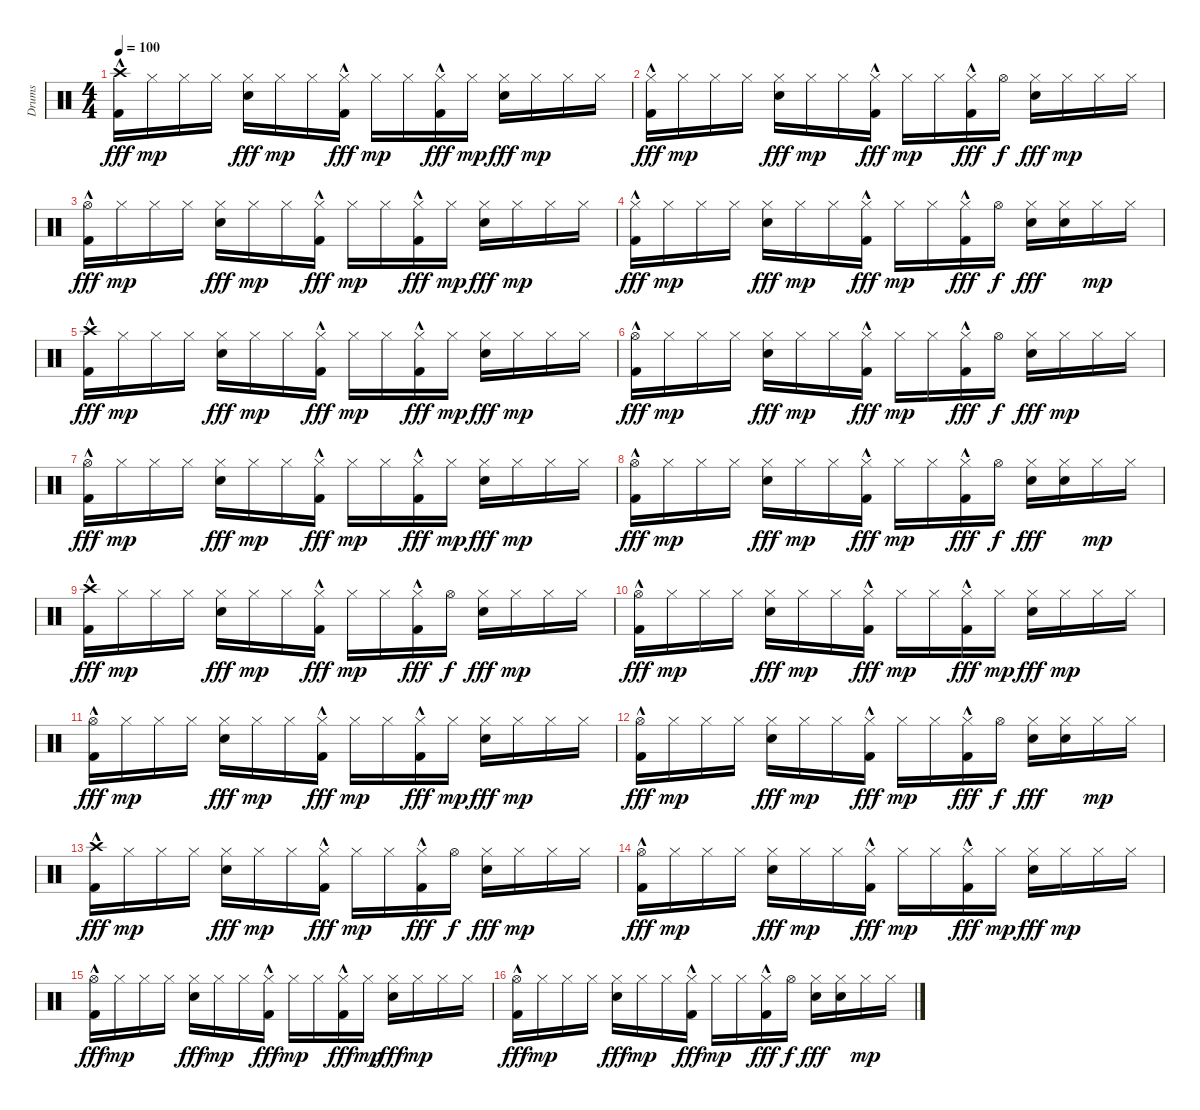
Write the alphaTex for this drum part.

\track ("Drums" "Drums") {instrument percussion}
\staff {score}
\articulation defaults
\ts (4 4)
\tempo 100
\clef neutral
\ks c
("Crash high (hit)" "Kick (hit) 2"{hac}).16{dy fff} "Hi-Hat (closed)".16{dy mp} "Hi-Hat (closed)".16 "Hi-Hat (closed)".16 ("Hi-Hat (closed)" "Snare (hit) 2").16{dy fff} "Hi-Hat (closed)".16{dy mp} "Hi-Hat (closed)".16 ("Hi-Hat (closed)" "Kick (hit) 2"{hac}).16{dy fff} "Hi-Hat (closed)".16{dy mp} "Hi-Hat (closed)".16 ("Hi-Hat (closed)" "Kick (hit) 2"{hac}).16{dy fff} "Hi-Hat (closed)".16{dy mp} ("Hi-Hat (closed)" "Snare (hit) 2").16{dy fff} "Hi-Hat (closed)".16{dy mp} "Hi-Hat (closed)".16 "Hi-Hat (closed)".16 |
("Hi-Hat (closed)" "Kick (hit) 2"{hac}).16{dy fff} "Hi-Hat (closed)".16{dy mp} "Hi-Hat (closed)".16 "Hi-Hat (closed)".16 ("Hi-Hat (closed)" "Snare (hit) 2").16{dy fff} "Hi-Hat (closed)".16{dy mp} "Hi-Hat (closed)".16 ("Hi-Hat (closed)" "Kick (hit) 2"{hac}).16{dy fff} "Hi-Hat (closed)".16{dy mp} "Hi-Hat (closed)".16 ("Hi-Hat (closed)" "Kick (hit) 2"{hac}).16{dy fff} "Hi-Hat (open)".16{dy f} ("Hi-Hat (closed)" "Snare (hit) 2").16{dy fff} "Hi-Hat (closed)".16{dy mp} "Hi-Hat (closed)".16 "Hi-Hat (closed)".16 |
("Hi-Hat (open)" "Kick (hit) 2"{hac}).16{dy fff} "Hi-Hat (closed)".16{dy mp} "Hi-Hat (closed)".16 "Hi-Hat (closed)".16 ("Hi-Hat (closed)" "Snare (hit) 2").16{dy fff} "Hi-Hat (closed)".16{dy mp} "Hi-Hat (closed)".16 ("Hi-Hat (closed)" "Kick (hit) 2"{hac}).16{dy fff} "Hi-Hat (closed)".16{dy mp} "Hi-Hat (closed)".16 ("Hi-Hat (closed)" "Kick (hit) 2"{hac}).16{dy fff} "Hi-Hat (closed)".16{dy mp} ("Hi-Hat (closed)" "Snare (hit) 2").16{dy fff} "Hi-Hat (closed)".16{dy mp} "Hi-Hat (closed)".16 "Hi-Hat (closed)".16 |
("Hi-Hat (closed)" "Kick (hit) 2"{hac}).16{dy fff} "Hi-Hat (closed)".16{dy mp} "Hi-Hat (closed)".16 "Hi-Hat (closed)".16 ("Hi-Hat (closed)" "Snare (hit) 2").16{dy fff} "Hi-Hat (closed)".16{dy mp} "Hi-Hat (closed)".16 ("Hi-Hat (closed)" "Kick (hit) 2"{hac}).16{dy fff} "Hi-Hat (closed)".16{dy mp} "Hi-Hat (closed)".16 ("Hi-Hat (closed)" "Kick (hit) 2"{hac}).16{dy fff} "Hi-Hat (open)".16{dy f} ("Hi-Hat (closed)" "Snare (hit) 2").16{dy fff} ("Hi-Hat (closed)" "Snare (hit) 2").16 "Hi-Hat (closed)".16{dy mp} "Hi-Hat (closed)".16 |
("Crash high (hit)" "Kick (hit) 2"{hac}).16{dy fff} "Hi-Hat (closed)".16{dy mp} "Hi-Hat (closed)".16 "Hi-Hat (closed)".16 ("Hi-Hat (closed)" "Snare (hit) 2").16{dy fff} "Hi-Hat (closed)".16{dy mp} "Hi-Hat (closed)".16 ("Hi-Hat (closed)" "Kick (hit) 2"{hac}).16{dy fff} "Hi-Hat (closed)".16{dy mp} "Hi-Hat (closed)".16 ("Hi-Hat (closed)" "Kick (hit) 2"{hac}).16{dy fff} "Hi-Hat (closed)".16{dy mp} ("Hi-Hat (closed)" "Snare (hit) 2").16{dy fff} "Hi-Hat (closed)".16{dy mp} "Hi-Hat (closed)".16 "Hi-Hat (closed)".16 |
("Hi-Hat (open)" "Kick (hit) 2"{hac}).16{dy fff} "Hi-Hat (closed)".16{dy mp} "Hi-Hat (closed)".16 "Hi-Hat (closed)".16 ("Hi-Hat (closed)" "Snare (hit) 2").16{dy fff} "Hi-Hat (closed)".16{dy mp} "Hi-Hat (closed)".16 ("Hi-Hat (closed)" "Kick (hit) 2"{hac}).16{dy fff} "Hi-Hat (closed)".16{dy mp} "Hi-Hat (closed)".16 ("Hi-Hat (closed)" "Kick (hit) 2"{hac}).16{dy fff} "Hi-Hat (open)".16{dy f} ("Hi-Hat (closed)" "Snare (hit) 2").16{dy fff} "Hi-Hat (closed)".16{dy mp} "Hi-Hat (closed)".16 "Hi-Hat (closed)".16 |
("Hi-Hat (open)" "Kick (hit) 2"{hac}).16{dy fff} "Hi-Hat (closed)".16{dy mp} "Hi-Hat (closed)".16 "Hi-Hat (closed)".16 ("Hi-Hat (closed)" "Snare (hit) 2").16{dy fff} "Hi-Hat (closed)".16{dy mp} "Hi-Hat (closed)".16 ("Hi-Hat (closed)" "Kick (hit) 2"{hac}).16{dy fff} "Hi-Hat (closed)".16{dy mp} "Hi-Hat (closed)".16 ("Hi-Hat (closed)" "Kick (hit) 2"{hac}).16{dy fff} "Hi-Hat (closed)".16{dy mp} ("Hi-Hat (closed)" "Snare (hit) 2").16{dy fff} "Hi-Hat (closed)".16{dy mp} "Hi-Hat (closed)".16 "Hi-Hat (closed)".16 |
("Hi-Hat (open)" "Kick (hit) 2"{hac}).16{dy fff} "Hi-Hat (closed)".16{dy mp} "Hi-Hat (closed)".16 "Hi-Hat (closed)".16 ("Hi-Hat (closed)" "Snare (hit) 2").16{dy fff} "Hi-Hat (closed)".16{dy mp} "Hi-Hat (closed)".16 ("Hi-Hat (closed)" "Kick (hit) 2"{hac}).16{dy fff} "Hi-Hat (closed)".16{dy mp} "Hi-Hat (closed)".16 ("Hi-Hat (closed)" "Kick (hit) 2"{hac}).16{dy fff} "Hi-Hat (open)".16{dy f} ("Hi-Hat (closed)" "Snare (hit) 2").16{dy fff} ("Hi-Hat (closed)" "Snare (hit) 2").16 "Hi-Hat (closed)".16{dy mp} "Hi-Hat (closed)".16 |
("Crash high (hit)" "Kick (hit) 2"{hac}).16{dy fff} "Hi-Hat (closed)".16{dy mp} "Hi-Hat (closed)".16 "Hi-Hat (closed)".16 ("Hi-Hat (closed)" "Snare (hit) 2").16{dy fff} "Hi-Hat (closed)".16{dy mp} "Hi-Hat (closed)".16 ("Hi-Hat (closed)" "Kick (hit) 2"{hac}).16{dy fff} "Hi-Hat (closed)".16{dy mp} "Hi-Hat (closed)".16 ("Hi-Hat (closed)" "Kick (hit) 2"{hac}).16{dy fff} "Hi-Hat (open)".16{dy f} ("Hi-Hat (closed)" "Snare (hit) 2").16{dy fff} "Hi-Hat (closed)".16{dy mp} "Hi-Hat (closed)".16 "Hi-Hat (closed)".16 |
("Hi-Hat (open)" "Kick (hit) 2"{hac}).16{dy fff} "Hi-Hat (closed)".16{dy mp} "Hi-Hat (closed)".16 "Hi-Hat (closed)".16 ("Hi-Hat (closed)" "Snare (hit) 2").16{dy fff} "Hi-Hat (closed)".16{dy mp} "Hi-Hat (closed)".16 ("Hi-Hat (closed)" "Kick (hit) 2"{hac}).16{dy fff} "Hi-Hat (closed)".16{dy mp} "Hi-Hat (closed)".16 ("Hi-Hat (closed)" "Kick (hit) 2"{hac}).16{dy fff} "Hi-Hat (closed)".16{dy mp} ("Hi-Hat (closed)" "Snare (hit) 2").16{dy fff} "Hi-Hat (closed)".16{dy mp} "Hi-Hat (closed)".16 "Hi-Hat (closed)".16 |
("Hi-Hat (open)" "Kick (hit) 2"{hac}).16{dy fff} "Hi-Hat (closed)".16{dy mp} "Hi-Hat (closed)".16 "Hi-Hat (closed)".16 ("Hi-Hat (closed)" "Snare (hit) 2").16{dy fff} "Hi-Hat (closed)".16{dy mp} "Hi-Hat (closed)".16 ("Hi-Hat (closed)" "Kick (hit) 2"{hac}).16{dy fff} "Hi-Hat (closed)".16{dy mp} "Hi-Hat (closed)".16 ("Hi-Hat (closed)" "Kick (hit) 2"{hac}).16{dy fff} "Hi-Hat (closed)".16{dy mp} ("Hi-Hat (closed)" "Snare (hit) 2").16{dy fff} "Hi-Hat (closed)".16{dy mp} "Hi-Hat (closed)".16 "Hi-Hat (closed)".16 |
("Hi-Hat (open)" "Kick (hit) 2"{hac}).16{dy fff} "Hi-Hat (closed)".16{dy mp} "Hi-Hat (closed)".16 "Hi-Hat (closed)".16 ("Hi-Hat (closed)" "Snare (hit) 2").16{dy fff} "Hi-Hat (closed)".16{dy mp} "Hi-Hat (closed)".16 ("Hi-Hat (closed)" "Kick (hit) 2"{hac}).16{dy fff} "Hi-Hat (closed)".16{dy mp} "Hi-Hat (closed)".16 ("Hi-Hat (closed)" "Kick (hit) 2"{hac}).16{dy fff} "Hi-Hat (open)".16{dy f} ("Hi-Hat (closed)" "Snare (hit) 2").16{dy fff} ("Hi-Hat (closed)" "Snare (hit) 2").16 "Hi-Hat (closed)".16{dy mp} "Hi-Hat (closed)".16 |
("Crash high (hit)" "Kick (hit) 2"{hac}).16{dy fff} "Hi-Hat (closed)".16{dy mp} "Hi-Hat (closed)".16 "Hi-Hat (closed)".16 ("Hi-Hat (closed)" "Snare (hit) 2").16{dy fff} "Hi-Hat (closed)".16{dy mp} "Hi-Hat (closed)".16 ("Hi-Hat (closed)" "Kick (hit) 2"{hac}).16{dy fff} "Hi-Hat (closed)".16{dy mp} "Hi-Hat (closed)".16 ("Hi-Hat (closed)" "Kick (hit) 2"{hac}).16{dy fff} "Hi-Hat (open)".16{dy f} ("Hi-Hat (closed)" "Snare (hit) 2").16{dy fff} "Hi-Hat (closed)".16{dy mp} "Hi-Hat (closed)".16 "Hi-Hat (closed)".16 |
("Hi-Hat (open)" "Kick (hit) 2"{hac}).16{dy fff} "Hi-Hat (closed)".16{dy mp} "Hi-Hat (closed)".16 "Hi-Hat (closed)".16 ("Hi-Hat (closed)" "Snare (hit) 2").16{dy fff} "Hi-Hat (closed)".16{dy mp} "Hi-Hat (closed)".16 ("Hi-Hat (closed)" "Kick (hit) 2"{hac}).16{dy fff} "Hi-Hat (closed)".16{dy mp} "Hi-Hat (closed)".16 ("Hi-Hat (closed)" "Kick (hit) 2"{hac}).16{dy fff} "Hi-Hat (closed)".16{dy mp} ("Hi-Hat (closed)" "Snare (hit) 2").16{dy fff} "Hi-Hat (closed)".16{dy mp} "Hi-Hat (closed)".16 "Hi-Hat (closed)".16 |
("Hi-Hat (open)" "Kick (hit) 2"{hac}).16{dy fff} "Hi-Hat (closed)".16{dy mp} "Hi-Hat (closed)".16 "Hi-Hat (closed)".16 ("Hi-Hat (closed)" "Snare (hit) 2").16{dy fff} "Hi-Hat (closed)".16{dy mp} "Hi-Hat (closed)".16 ("Hi-Hat (closed)" "Kick (hit) 2"{hac}).16{dy fff} "Hi-Hat (closed)".16{dy mp} "Hi-Hat (closed)".16 ("Hi-Hat (closed)" "Kick (hit) 2"{hac}).16{dy fff} "Hi-Hat (closed)".16{dy mp} ("Hi-Hat (closed)" "Snare (hit) 2").16{dy fff} "Hi-Hat (closed)".16{dy mp} "Hi-Hat (closed)".16 "Hi-Hat (closed)".16 |
("Hi-Hat (open)" "Kick (hit) 2"{hac}).16{dy fff} "Hi-Hat (closed)".16{dy mp} "Hi-Hat (closed)".16 "Hi-Hat (closed)".16 ("Hi-Hat (closed)" "Snare (hit) 2").16{dy fff} "Hi-Hat (closed)".16{dy mp} "Hi-Hat (closed)".16 ("Hi-Hat (closed)" "Kick (hit) 2"{hac}).16{dy fff} "Hi-Hat (closed)".16{dy mp} "Hi-Hat (closed)".16 ("Hi-Hat (closed)" "Kick (hit) 2"{hac}).16{dy fff} "Hi-Hat (open)".16{dy f} ("Hi-Hat (closed)" "Snare (hit) 2").16{dy fff} ("Hi-Hat (closed)" "Snare (hit) 2").16 "Hi-Hat (closed)".16{dy mp} "Hi-Hat (closed)".16
